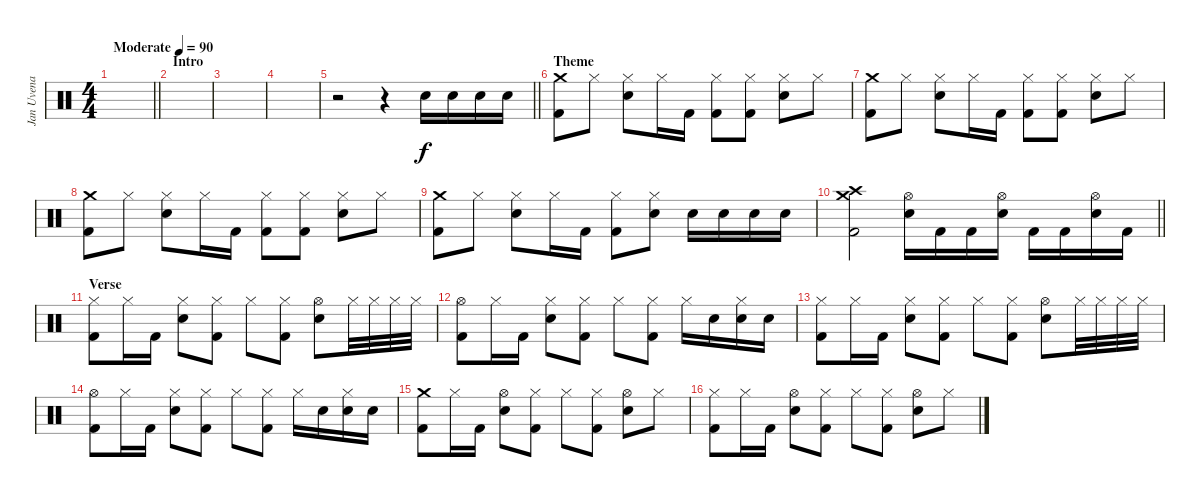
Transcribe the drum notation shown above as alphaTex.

\track ("Jan Uvena" "Jan Uvena") {instrument percussion}
\staff {score}
\articulation defaults
\ts (4 4)
\tempo (90 "Moderate")
\clef neutral
\barLineRight lightlight
\ks c
|
\section ("" "Intro")
|
|
|
\barLineRight lightlight
r.2 r.4 "Snare (hit) 2".16 "Snare (hit) 2".16 "Snare (hit) 2".16 "Snare (hit) 2".16 |
\section ("" "Theme")
("Crash medium (hit)" "Kick (hit) 2").8 "Hi-Hat (closed)".8 ("Hi-Hat (closed)" "Snare (hit) 2").8 "Hi-Hat (closed)".16 "Kick (hit) 2".16 ("Hi-Hat (closed)" "Kick (hit) 2").8 ("Hi-Hat (closed)" "Kick (hit) 2").8 ("Hi-Hat (closed)" "Snare (hit) 2").8 "Hi-Hat (closed)".8 |
("Crash medium (hit)" "Kick (hit) 2").8 "Hi-Hat (closed)".8 ("Hi-Hat (closed)" "Snare (hit) 2").8 "Hi-Hat (closed)".16 "Kick (hit) 2".16 ("Hi-Hat (closed)" "Kick (hit) 2").8 ("Hi-Hat (closed)" "Kick (hit) 2").8 ("Hi-Hat (closed)" "Snare (hit) 2").8 "Hi-Hat (closed)".8 |
("Crash medium (hit)" "Kick (hit) 2").8 "Hi-Hat (closed)".8 ("Hi-Hat (closed)" "Snare (hit) 2").8 "Hi-Hat (closed)".16 "Kick (hit) 2".16 ("Hi-Hat (closed)" "Kick (hit) 2").8 ("Hi-Hat (closed)" "Kick (hit) 2").8 ("Hi-Hat (closed)" "Snare (hit) 2").8 "Hi-Hat (closed)".8 |
("Crash medium (hit)" "Kick (hit) 2").8 "Hi-Hat (closed)".8 ("Hi-Hat (closed)" "Snare (hit) 2").8 "Hi-Hat (closed)".16 "Kick (hit) 2".16 ("Hi-Hat (closed)" "Kick (hit) 2").8 ("Hi-Hat (closed)" "Snare (hit) 2").8 "Snare (hit) 2".16 "Snare (hit) 2".16 "Snare (hit) 2".16 "Snare (hit) 2".16 |
\barLineRight lightlight
("Crash medium (hit)" "Crash high (hit)" "Kick (hit) 2").2 ("Hi-Hat (open)" "Snare (hit) 2").16 "Kick (hit) 2".16 "Kick (hit) 2".16 ("Hi-Hat (open)" "Snare (hit) 2").16 "Kick (hit) 2".16 "Kick (hit) 2".16 ("Hi-Hat (open)" "Snare (hit) 2").16 "Kick (hit) 2".16 |
\section ("" "Verse")
("Hi-Hat (closed)" "Kick (hit) 2").8 "Hi-Hat (closed)".16 "Kick (hit) 2".16 ("Hi-Hat (closed)" "Snare (hit) 2").8 ("Hi-Hat (closed)" "Kick (hit) 2").8 "Hi-Hat (closed)".8 ("Hi-Hat (closed)" "Kick (hit) 2").8 ("Hi-Hat (open)" "Snare (hit) 2").8 "Hi-Hat (closed)".32 "Hi-Hat (closed)".32 "Hi-Hat (closed)".32 "Hi-Hat (closed)".32 |
("Hi-Hat (open)" "Kick (hit) 2").8 "Hi-Hat (closed)".16 "Kick (hit) 2".16 ("Hi-Hat (closed)" "Snare (hit) 2").8 ("Hi-Hat (closed)" "Kick (hit) 2").8 "Hi-Hat (closed)".8 ("Hi-Hat (closed)" "Kick (hit) 2").8 "Hi-Hat (closed)".16 "Snare (hit) 2".16 ("Hi-Hat (closed)" "Snare (hit) 2").16 "Snare (hit) 2".16 |
("Hi-Hat (closed)" "Kick (hit) 2").8 "Hi-Hat (closed)".16 "Kick (hit) 2".16 ("Hi-Hat (closed)" "Snare (hit) 2").8 ("Hi-Hat (closed)" "Kick (hit) 2").8 "Hi-Hat (closed)".8 ("Hi-Hat (closed)" "Kick (hit) 2").8 ("Hi-Hat (open)" "Snare (hit) 2").8 "Hi-Hat (closed)".32 "Hi-Hat (closed)".32 "Hi-Hat (closed)".32 "Hi-Hat (closed)".32 |
("Hi-Hat (open)" "Kick (hit) 2").8 "Hi-Hat (closed)".16 "Kick (hit) 2".16 ("Hi-Hat (closed)" "Snare (hit) 2").8 ("Hi-Hat (closed)" "Kick (hit) 2").8 "Hi-Hat (closed)".8 ("Hi-Hat (closed)" "Kick (hit) 2").8 "Hi-Hat (closed)".16 "Snare (hit) 2".16 ("Hi-Hat (closed)" "Snare (hit) 2").16 "Snare (hit) 2".16 |
("Crash medium (hit)" "Kick (hit) 2").8 "Hi-Hat (closed)".16 "Kick (hit) 2".16 ("Hi-Hat (open)" "Snare (hit) 2").8 ("Hi-Hat (closed)" "Kick (hit) 2").8 "Hi-Hat (closed)".8 ("Hi-Hat (closed)" "Kick (hit) 2").8 ("Hi-Hat (open)" "Snare (hit) 2").8 "Hi-Hat (closed)".8 |
("Hi-Hat (closed)" "Kick (hit) 2").8 "Hi-Hat (closed)".16 "Kick (hit) 2".16 ("Hi-Hat (open)" "Snare (hit) 2").8 ("Hi-Hat (closed)" "Kick (hit) 2").8 "Hi-Hat (closed)".8 ("Hi-Hat (closed)" "Kick (hit) 2").8 ("Hi-Hat (open)" "Snare (hit) 2").8 "Hi-Hat (closed)".8
